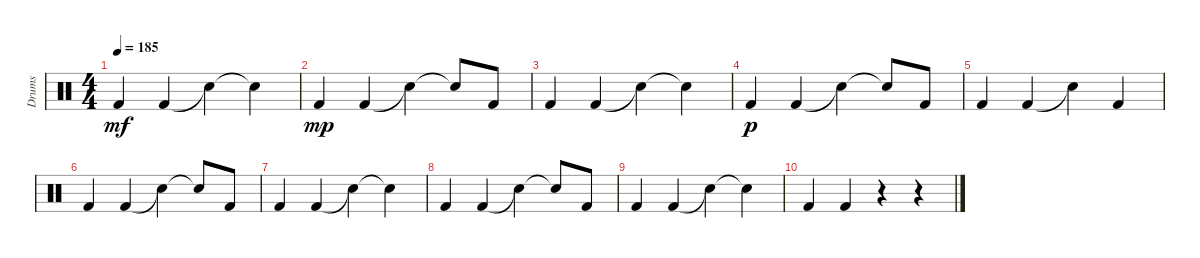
\track ("Drums" "Drums") {instrument percussion}
\staff {score}
\articulation defaults
\ts (4 4)
\tempo 185
\clef neutral
\ks c "Kick (hit) 2".4{dy mf} "Kick (hit) 2".4 "Snare (hit)"{t}.4 "Snare (hit)"{t}.4
|
"Kick (hit) 2".4{dy mp} "Kick (hit) 2".4 "Snare (hit)"{t}.4 "Snare (hit)"{t}.8 "Kick (hit) 2".8 |
"Kick (hit) 2".4 "Kick (hit) 2".4 "Snare (hit)"{t}.4 "Snare (hit)"{t}.4 |
"Kick (hit) 2".4{dy p} "Kick (hit) 2".4 "Snare (hit)"{t}.4 "Snare (hit)"{t}.8 "Kick (hit) 2".8 |
"Kick (hit) 2".4 "Kick (hit) 2".4 "Snare (hit)"{t}.4 "Kick (hit) 2".4 |
"Kick (hit) 2".4 "Kick (hit) 2".4 "Snare (hit)"{t}.4 "Snare (hit)"{t}.8 "Kick (hit) 2".8 |
"Kick (hit) 2".4 "Kick (hit) 2".4 "Snare (hit)"{t}.4 "Snare (hit)"{t}.4 |
"Kick (hit) 2".4 "Kick (hit) 2".4 "Snare (hit)"{t}.4 "Snare (hit)"{t}.8 "Kick (hit) 2".8 |
"Kick (hit) 2".4 "Kick (hit) 2".4 "Snare (hit)"{t}.4 "Snare (hit)"{t}.4 |
"Kick (hit) 2".4 "Kick (hit) 2".4 r.4 r.4
